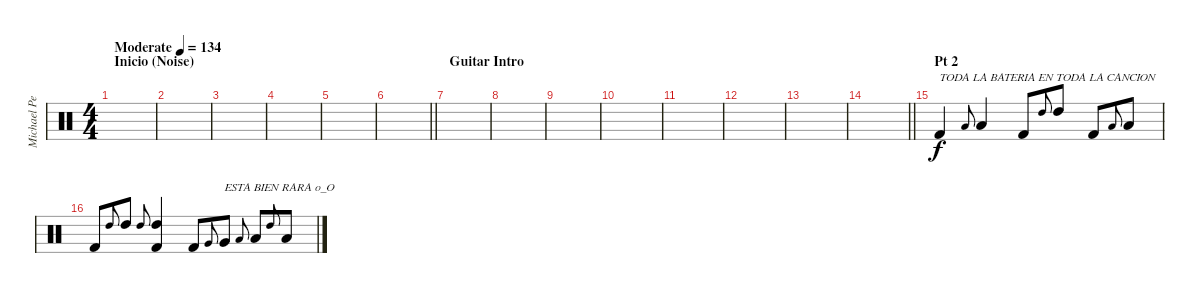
\track ("Michael Pedicone [Drums]" "Michael Pe") {instrument percussion}
\staff
\articulation defaults
\ts (4 4)
\section ("" "Inicio (Noise)")
\tempo (134 "Moderate")
\clef neutral
\ks c
|
|
|
|
|
\barLineRight lightlight
|
\section ("" "Guitar Intro")
|
|
|
|
|
|
|
\barLineRight lightlight
|
\section ("" "Pt 2")
"Kick (hit) 2".4{txt "TODA LA BATERIA EN TODA LA CANCION"} "Low Tom (hit)".8{gr onbeat} "Low Floor Tom (hit)".4 "Kick (hit) 2".8 "High Tom (hit)".8{gr onbeat} "High Tom (hit)".8 "Kick (hit) 2".8 "Low Tom (hit)".8{gr onbeat} "Low Floor Tom (hit)".8 |
"Kick (hit) 2".8 "High Tom (hit)".8{gr onbeat} "High Tom (hit)".8 "High Tom (hit)".8{gr onbeat} ("High Tom (hit)" "Kick (hit) 2").4 "Kick (hit) 2".8 "Very Low Tom (hit)".8{gr onbeat} "Very Low Tom (hit)".8{txt "ESTA BIEN RARA o_O"} "Low Tom (hit)".8{gr onbeat} "Low Tom (hit)".8 "High Tom (hit)".8{gr onbeat} "Low Tom (hit)".8
